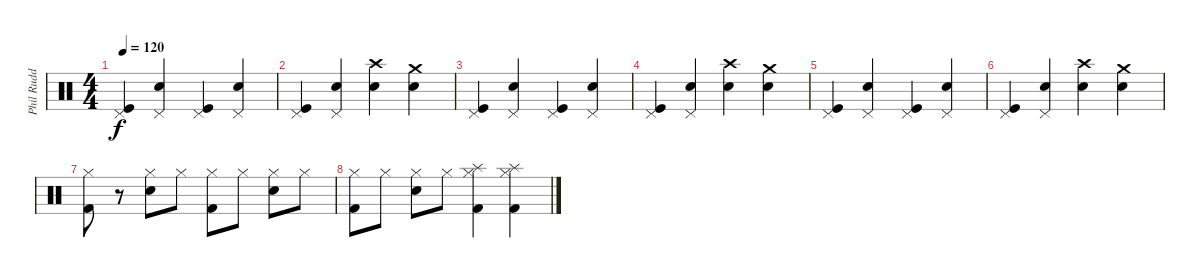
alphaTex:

\track ("Phil Rudd" "Phil Rudd") {instrument percussion}
\staff {score}
\articulation defaults
\ts (4 4)
\tempo 120
\clef neutral
\ks c
("Pedal Hi-Hat (hit)" "Kick (hit)").4{dy f} ("Pedal Hi-Hat (hit)" "Electric Snare (hit)").4 ("Pedal Hi-Hat (hit)" "Kick (hit)").4 ("Pedal Hi-Hat (hit)" "Electric Snare (hit)").4 |
("Pedal Hi-Hat (hit)" "Kick (hit)").4 ("Pedal Hi-Hat (hit)" "Electric Snare (hit)").4 ("Electric Snare (hit)" "Crash high (hit)").4 ("Crash medium (hit)" "Electric Snare (hit)").4 |
("Pedal Hi-Hat (hit)" "Kick (hit)").4 ("Pedal Hi-Hat (hit)" "Electric Snare (hit)").4 ("Pedal Hi-Hat (hit)" "Kick (hit)").4 ("Pedal Hi-Hat (hit)" "Electric Snare (hit)").4 |
("Pedal Hi-Hat (hit)" "Kick (hit)").4 ("Pedal Hi-Hat (hit)" "Electric Snare (hit)").4 ("Electric Snare (hit)" "Crash high (hit)").4 ("Crash medium (hit)" "Electric Snare (hit)").4 |
("Pedal Hi-Hat (hit)" "Kick (hit)").4 ("Pedal Hi-Hat (hit)" "Electric Snare (hit)").4 ("Pedal Hi-Hat (hit)" "Kick (hit)").4 ("Pedal Hi-Hat (hit)" "Electric Snare (hit)").4 |
("Pedal Hi-Hat (hit)" "Kick (hit)").4 ("Pedal Hi-Hat (hit)" "Electric Snare (hit)").4 ("Electric Snare (hit)" "Crash high (hit)").4 ("Crash medium (hit)" "Electric Snare (hit)").4 |
("Kick (hit) 2" "Hi-Hat (closed)").8 r.8 ("Electric Snare (hit)" "Hi-Hat (closed)").8 "Hi-Hat (closed)".8 ("Kick (hit) 2" "Hi-Hat (closed)").8 "Hi-Hat (closed)".8 ("Electric Snare (hit)" "Hi-Hat (closed)").8 "Hi-Hat (closed)".8 |
("Kick (hit) 2" "Hi-Hat (closed)").8 "Hi-Hat (closed)".8 ("Electric Snare (hit)" "Hi-Hat (closed)").8 "Hi-Hat (closed)".8 ("Kick (hit) 2" "Hi-Hat (closed)" "Splash (hit)").4 ("Kick (hit) 2" "Hi-Hat (closed)" "Splash (hit)").4
